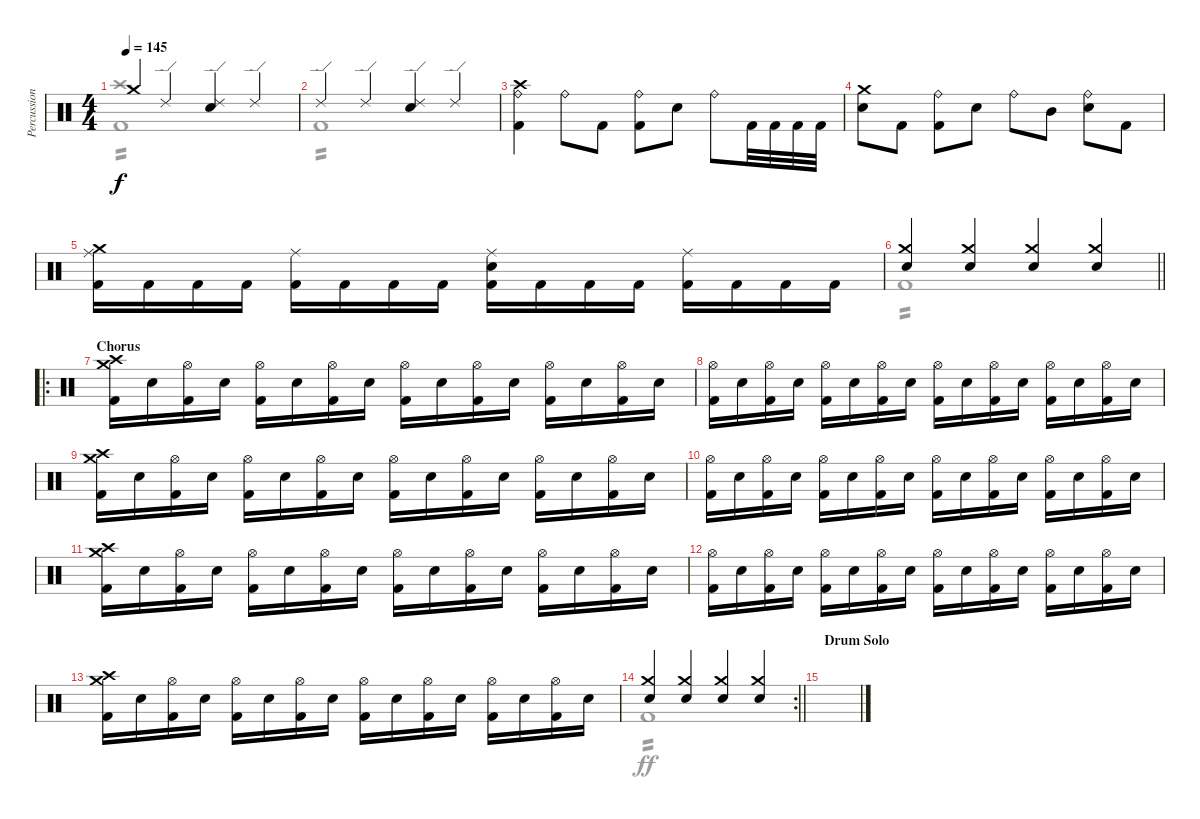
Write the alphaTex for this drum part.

\track ("Percussion" "Percussion") {instrument percussion}
\staff {score}
\articulation defaults
\voice
\ts (4 4)
\tempo 145
\clef neutral
\ks c "Crash medium (hit)".4{dy f} "Ride (edge) 2".4
("Ride (edge) 2" "Electric Snare (hit)").4 "Ride (edge) 2".4 |
"Ride (edge) 2".4 "Ride (edge) 2".4 ("Ride (edge) 2" "Electric Snare (hit)").4 "Ride (edge) 2".4 |
("Ride (bell)" "Crash high (hit)" "Kick (hit) 2").4 "Ride (bell)".8 "Kick (hit) 2".8 ("Ride (bell)" "Kick (hit) 2").8 "Electric Snare (hit)".8 "Ride (bell)".8 "Kick (hit) 2".32 "Kick (hit) 2".32 "Kick (hit) 2".32 "Kick (hit) 2".32 |
("Crash medium (hit)" "Electric Snare (hit)").8 "Kick (hit) 2".8 ("Ride (bell)" "Kick (hit) 2").8 "Electric Snare (hit)".8 "Ride (bell)".8 "Mid Tom (hit)".8 ("Ride (bell)" "Electric Snare (hit)").8 "Kick (hit) 2".8 |
("Ride (middle)" "Crash medium (hit)" "Kick (hit) 2").16 "Kick (hit) 2".16 "Kick (hit) 2".16 "Kick (hit) 2".16 ("Ride (middle)" "Kick (hit) 2").16 "Kick (hit) 2".16 "Kick (hit) 2".16 "Kick (hit) 2".16 ("Ride (middle)" "Electric Snare (hit)" "Kick (hit) 2").16 "Kick (hit) 2".16 "Kick (hit) 2".16 "Kick (hit) 2".16 ("Ride (middle)" "Kick (hit) 2").16 "Kick (hit) 2".16 "Kick (hit) 2".16 "Kick (hit) 2".16 |
\barLineRight lightlight
("Crash medium (hit)" "Electric Snare (hit)").4 ("Crash medium (hit)" "Electric Snare (hit)").4 ("Crash medium (hit)" "Electric Snare (hit)").4 ("Crash medium (hit)" "Electric Snare (hit)").4 |
\ro
\section ("" "Chorus")
("Crash medium (hit)" "Crash high (hit)" "Kick (hit) 2").16 "Electric Snare (hit)".16 ("Hi-Hat (open)" "Kick (hit) 2").16 "Electric Snare (hit)".16 ("Hi-Hat (open)" "Kick (hit) 2").16 "Electric Snare (hit)".16 ("Hi-Hat (open)" "Kick (hit) 2").16 "Electric Snare (hit)".16 ("Hi-Hat (open)" "Kick (hit) 2").16 "Electric Snare (hit)".16 ("Hi-Hat (open)" "Kick (hit) 2").16 "Electric Snare (hit)".16 ("Hi-Hat (open)" "Kick (hit) 2").16 "Electric Snare (hit)".16 ("Hi-Hat (open)" "Kick (hit) 2").16 "Electric Snare (hit)".16 |
("Hi-Hat (open)" "Kick (hit) 2").16 "Electric Snare (hit)".16 ("Hi-Hat (open)" "Kick (hit) 2").16 "Electric Snare (hit)".16 ("Hi-Hat (open)" "Kick (hit) 2").16 "Electric Snare (hit)".16 ("Hi-Hat (open)" "Kick (hit) 2").16 "Electric Snare (hit)".16 ("Hi-Hat (open)" "Kick (hit) 2").16 "Electric Snare (hit)".16 ("Hi-Hat (open)" "Kick (hit) 2").16 "Electric Snare (hit)".16 ("Hi-Hat (open)" "Kick (hit) 2").16 "Electric Snare (hit)".16 ("Hi-Hat (open)" "Kick (hit) 2").16 "Electric Snare (hit)".16 |
("Crash medium (hit)" "Crash high (hit)" "Kick (hit) 2").16 "Electric Snare (hit)".16 ("Hi-Hat (open)" "Kick (hit) 2").16 "Electric Snare (hit)".16 ("Hi-Hat (open)" "Kick (hit) 2").16 "Electric Snare (hit)".16 ("Hi-Hat (open)" "Kick (hit) 2").16 "Electric Snare (hit)".16 ("Hi-Hat (open)" "Kick (hit) 2").16 "Electric Snare (hit)".16 ("Hi-Hat (open)" "Kick (hit) 2").16 "Electric Snare (hit)".16 ("Hi-Hat (open)" "Kick (hit) 2").16 "Electric Snare (hit)".16 ("Hi-Hat (open)" "Kick (hit) 2").16 "Electric Snare (hit)".16 |
("Hi-Hat (open)" "Kick (hit) 2").16 "Electric Snare (hit)".16 ("Hi-Hat (open)" "Kick (hit) 2").16 "Electric Snare (hit)".16 ("Hi-Hat (open)" "Kick (hit) 2").16 "Electric Snare (hit)".16 ("Hi-Hat (open)" "Kick (hit) 2").16 "Electric Snare (hit)".16 ("Hi-Hat (open)" "Kick (hit) 2").16 "Electric Snare (hit)".16 ("Hi-Hat (open)" "Kick (hit) 2").16 "Electric Snare (hit)".16 ("Hi-Hat (open)" "Kick (hit) 2").16 "Electric Snare (hit)".16 ("Hi-Hat (open)" "Kick (hit) 2").16 "Electric Snare (hit)".16 |
("Crash medium (hit)" "Crash high (hit)" "Kick (hit) 2").16 "Electric Snare (hit)".16 ("Hi-Hat (open)" "Kick (hit) 2").16 "Electric Snare (hit)".16 ("Hi-Hat (open)" "Kick (hit) 2").16 "Electric Snare (hit)".16 ("Hi-Hat (open)" "Kick (hit) 2").16 "Electric Snare (hit)".16 ("Hi-Hat (open)" "Kick (hit) 2").16 "Electric Snare (hit)".16 ("Hi-Hat (open)" "Kick (hit) 2").16 "Electric Snare (hit)".16 ("Hi-Hat (open)" "Kick (hit) 2").16 "Electric Snare (hit)".16 ("Hi-Hat (open)" "Kick (hit) 2").16 "Electric Snare (hit)".16 |
("Hi-Hat (open)" "Kick (hit) 2").16 "Electric Snare (hit)".16 ("Hi-Hat (open)" "Kick (hit) 2").16 "Electric Snare (hit)".16 ("Hi-Hat (open)" "Kick (hit) 2").16 "Electric Snare (hit)".16 ("Hi-Hat (open)" "Kick (hit) 2").16 "Electric Snare (hit)".16 ("Hi-Hat (open)" "Kick (hit) 2").16 "Electric Snare (hit)".16 ("Hi-Hat (open)" "Kick (hit) 2").16 "Electric Snare (hit)".16 ("Hi-Hat (open)" "Kick (hit) 2").16 "Electric Snare (hit)".16 ("Hi-Hat (open)" "Kick (hit) 2").16 "Electric Snare (hit)".16 |
("Crash medium (hit)" "Crash high (hit)" "Kick (hit) 2").16 "Electric Snare (hit)".16 ("Hi-Hat (open)" "Kick (hit) 2").16 "Electric Snare (hit)".16 ("Hi-Hat (open)" "Kick (hit) 2").16 "Electric Snare (hit)".16 ("Hi-Hat (open)" "Kick (hit) 2").16 "Electric Snare (hit)".16 ("Hi-Hat (open)" "Kick (hit) 2").16 "Electric Snare (hit)".16 ("Hi-Hat (open)" "Kick (hit) 2").16 "Electric Snare (hit)".16 ("Hi-Hat (open)" "Kick (hit) 2").16 "Electric Snare (hit)".16 ("Hi-Hat (open)" "Kick (hit) 2").16 "Electric Snare (hit)".16 |
\rc 2
\barLineRight lightlight
("Crash medium (hit)" "Electric Snare (hit)").4 ("Crash medium (hit)" "Electric Snare (hit)").4 ("Crash medium (hit)" "Electric Snare (hit)").4 ("Crash medium (hit)" "Electric Snare (hit)").4 |
\section ("" "Drum Solo")
|
\voice
\clef neutral
\ottava regular
\simile none
\ks c
("Crash high (hit)" "Kick (hit) 2").1{tp 2 dy f} |
"Kick (hit) 2".1{tp 2} |
|
|
|
\barLineRight lightlight "Kick (hit) 2".1{tp 2}
|
|
|
|
|
|
|
|
\barLineRight lightlight "Kick (hit) 2".1{tp 2 dy ff}
|
|
